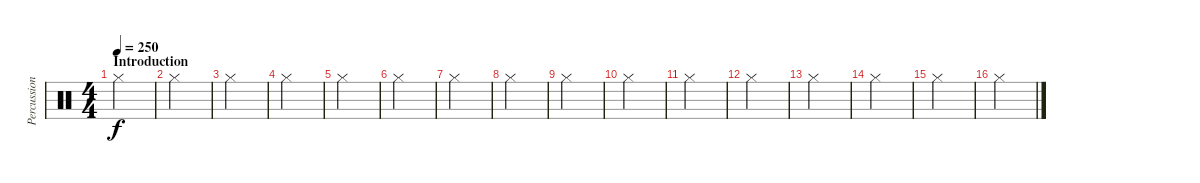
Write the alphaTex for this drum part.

\track ("Percussions" "Percussion") {instrument percussion}
\staff {score}
\articulation defaults
\ts (4 4)
\section ("" "Introduction")
\tempo 250
\clef neutral
\ks c "Hi-Hat (closed)".4{dy f}
|
"Hi-Hat (closed)".4 |
"Hi-Hat (closed)".4 |
"Hi-Hat (closed)".4 |
"Hi-Hat (closed)".4 |
"Hi-Hat (closed)".4 |
"Hi-Hat (closed)".4 |
"Hi-Hat (closed)".4 |
"Hi-Hat (closed)".4 |
"Hi-Hat (closed)".4 |
"Hi-Hat (closed)".4 |
"Hi-Hat (closed)".4 |
"Hi-Hat (closed)".4 |
"Hi-Hat (closed)".4 |
"Hi-Hat (closed)".4 |
"Hi-Hat (closed)".4
